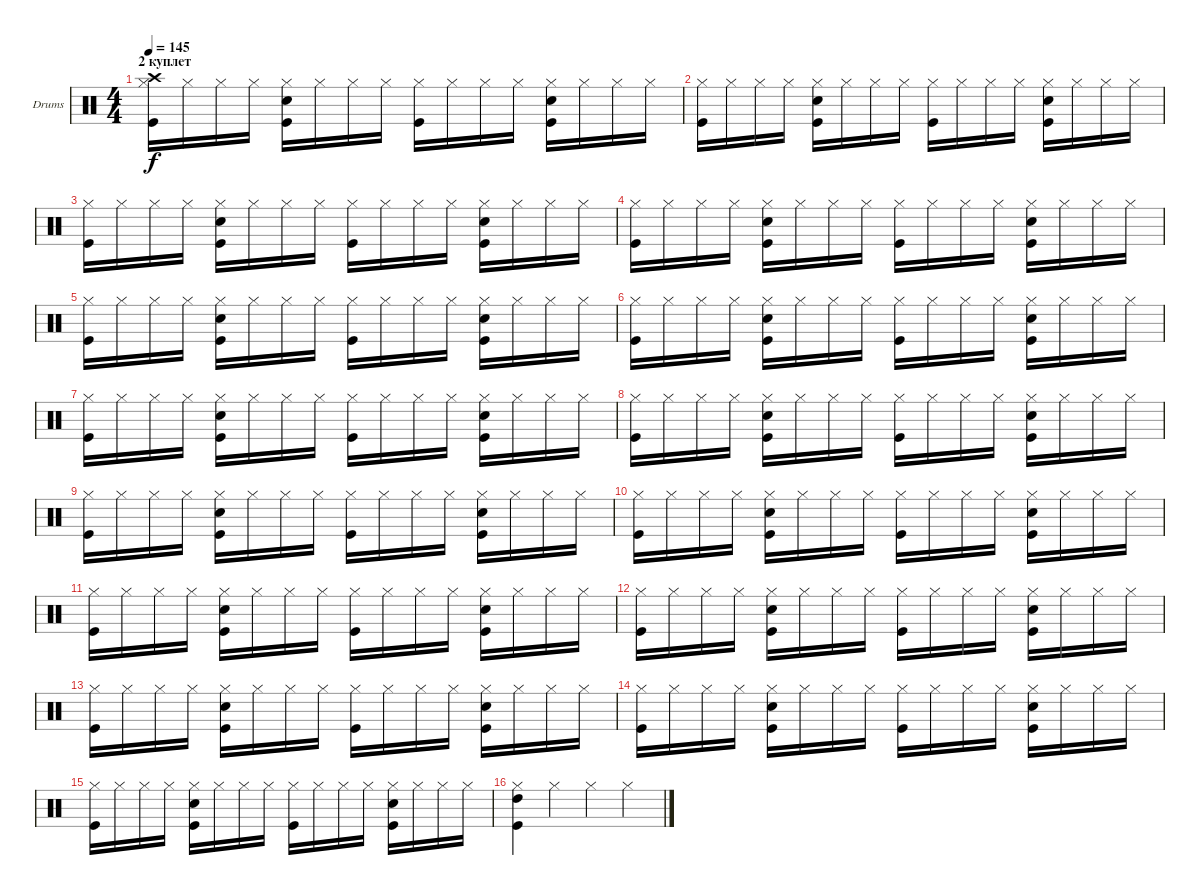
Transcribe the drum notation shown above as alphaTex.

\defaultSystemsLayout 4
\bracketExtendMode groupsimilarinstruments
\firstSystemTrackNameOrientation horizontal
\otherSystemsTrackNameOrientation horizontal
\track ("Drumkit" "Drums") {instrument percussion}
\staff {score}
\articulation defaults
\ts (4 4)
\section ("" "2 куплет")
\tempo 145
\clef neutral
\ks c
("Hi-Hat (closed)" "Kick (hit)" "Crash high (hit)").16{dy f} "Hi-Hat (closed)".16 "Hi-Hat (closed)".16 "Hi-Hat (closed)".16 ("Hi-Hat (closed)" "Kick (hit)" "Snare (hit) 2").16 "Hi-Hat (closed)".16 "Hi-Hat (closed)".16 "Hi-Hat (closed)".16 ("Hi-Hat (closed)" "Kick (hit)").16 "Hi-Hat (closed)".16 "Hi-Hat (closed)".16 "Hi-Hat (closed)".16 ("Hi-Hat (closed)" "Kick (hit)" "Snare (hit) 2").16 "Hi-Hat (closed)".16 "Hi-Hat (closed)".16 "Hi-Hat (closed)".16 |
("Hi-Hat (closed)" "Kick (hit)").16 "Hi-Hat (closed)".16 "Hi-Hat (closed)".16 "Hi-Hat (closed)".16 ("Hi-Hat (closed)" "Kick (hit)" "Snare (hit) 2").16 "Hi-Hat (closed)".16 "Hi-Hat (closed)".16 "Hi-Hat (closed)".16 ("Hi-Hat (closed)" "Kick (hit)").16 "Hi-Hat (closed)".16 "Hi-Hat (closed)".16 "Hi-Hat (closed)".16 ("Hi-Hat (closed)" "Kick (hit)" "Snare (hit) 2").16 "Hi-Hat (closed)".16 "Hi-Hat (closed)".16 "Hi-Hat (closed)".16 |
("Hi-Hat (closed)" "Kick (hit)").16 "Hi-Hat (closed)".16 "Hi-Hat (closed)".16 "Hi-Hat (closed)".16 ("Hi-Hat (closed)" "Kick (hit)" "Snare (hit) 2").16 "Hi-Hat (closed)".16 "Hi-Hat (closed)".16 "Hi-Hat (closed)".16 ("Hi-Hat (closed)" "Kick (hit)").16 "Hi-Hat (closed)".16 "Hi-Hat (closed)".16 "Hi-Hat (closed)".16 ("Hi-Hat (closed)" "Kick (hit)" "Snare (hit) 2").16 "Hi-Hat (closed)".16 "Hi-Hat (closed)".16 "Hi-Hat (closed)".16 |
("Hi-Hat (closed)" "Kick (hit)").16 "Hi-Hat (closed)".16 "Hi-Hat (closed)".16 "Hi-Hat (closed)".16 ("Hi-Hat (closed)" "Kick (hit)" "Snare (hit) 2").16 "Hi-Hat (closed)".16 "Hi-Hat (closed)".16 "Hi-Hat (closed)".16 ("Hi-Hat (closed)" "Kick (hit)").16 "Hi-Hat (closed)".16 "Hi-Hat (closed)".16 "Hi-Hat (closed)".16 ("Hi-Hat (closed)" "Kick (hit)" "Snare (hit) 2").16 "Hi-Hat (closed)".16 "Hi-Hat (closed)".16 "Hi-Hat (closed)".16 |
("Hi-Hat (closed)" "Kick (hit)").16 "Hi-Hat (closed)".16 "Hi-Hat (closed)".16 "Hi-Hat (closed)".16 ("Hi-Hat (closed)" "Kick (hit)" "Snare (hit) 2").16 "Hi-Hat (closed)".16 "Hi-Hat (closed)".16 "Hi-Hat (closed)".16 ("Hi-Hat (closed)" "Kick (hit)").16 "Hi-Hat (closed)".16 "Hi-Hat (closed)".16 "Hi-Hat (closed)".16 ("Hi-Hat (closed)" "Kick (hit)" "Snare (hit) 2").16 "Hi-Hat (closed)".16 "Hi-Hat (closed)".16 "Hi-Hat (closed)".16 |
("Hi-Hat (closed)" "Kick (hit)").16 "Hi-Hat (closed)".16 "Hi-Hat (closed)".16 "Hi-Hat (closed)".16 ("Hi-Hat (closed)" "Kick (hit)" "Snare (hit) 2").16 "Hi-Hat (closed)".16 "Hi-Hat (closed)".16 "Hi-Hat (closed)".16 ("Hi-Hat (closed)" "Kick (hit)").16 "Hi-Hat (closed)".16 "Hi-Hat (closed)".16 "Hi-Hat (closed)".16 ("Hi-Hat (closed)" "Kick (hit)" "Snare (hit) 2").16 "Hi-Hat (closed)".16 "Hi-Hat (closed)".16 "Hi-Hat (closed)".16 |
("Hi-Hat (closed)" "Kick (hit)").16 "Hi-Hat (closed)".16 "Hi-Hat (closed)".16 "Hi-Hat (closed)".16 ("Hi-Hat (closed)" "Kick (hit)" "Snare (hit) 2").16 "Hi-Hat (closed)".16 "Hi-Hat (closed)".16 "Hi-Hat (closed)".16 ("Hi-Hat (closed)" "Kick (hit)").16 "Hi-Hat (closed)".16 "Hi-Hat (closed)".16 "Hi-Hat (closed)".16 ("Hi-Hat (closed)" "Kick (hit)" "Snare (hit) 2").16 "Hi-Hat (closed)".16 "Hi-Hat (closed)".16 "Hi-Hat (closed)".16 |
("Hi-Hat (closed)" "Kick (hit)").16 "Hi-Hat (closed)".16 "Hi-Hat (closed)".16 "Hi-Hat (closed)".16 ("Hi-Hat (closed)" "Kick (hit)" "Snare (hit) 2").16 "Hi-Hat (closed)".16 "Hi-Hat (closed)".16 "Hi-Hat (closed)".16 ("Hi-Hat (closed)" "Kick (hit)").16 "Hi-Hat (closed)".16 "Hi-Hat (closed)".16 "Hi-Hat (closed)".16 ("Hi-Hat (closed)" "Kick (hit)" "Snare (hit) 2").16 "Hi-Hat (closed)".16 "Hi-Hat (closed)".16 "Hi-Hat (closed)".16 |
("Hi-Hat (closed)" "Kick (hit)").16 "Hi-Hat (closed)".16 "Hi-Hat (closed)".16 "Hi-Hat (closed)".16 ("Hi-Hat (closed)" "Kick (hit)" "Snare (hit) 2").16 "Hi-Hat (closed)".16 "Hi-Hat (closed)".16 "Hi-Hat (closed)".16 ("Hi-Hat (closed)" "Kick (hit)").16 "Hi-Hat (closed)".16 "Hi-Hat (closed)".16 "Hi-Hat (closed)".16 ("Hi-Hat (closed)" "Kick (hit)" "Snare (hit) 2").16 "Hi-Hat (closed)".16 "Hi-Hat (closed)".16 "Hi-Hat (closed)".16 |
("Hi-Hat (closed)" "Kick (hit)").16 "Hi-Hat (closed)".16 "Hi-Hat (closed)".16 "Hi-Hat (closed)".16 ("Hi-Hat (closed)" "Kick (hit)" "Snare (hit) 2").16 "Hi-Hat (closed)".16 "Hi-Hat (closed)".16 "Hi-Hat (closed)".16 ("Hi-Hat (closed)" "Kick (hit)").16 "Hi-Hat (closed)".16 "Hi-Hat (closed)".16 "Hi-Hat (closed)".16 ("Hi-Hat (closed)" "Kick (hit)" "Snare (hit) 2").16 "Hi-Hat (closed)".16 "Hi-Hat (closed)".16 "Hi-Hat (closed)".16 |
("Hi-Hat (closed)" "Kick (hit)").16 "Hi-Hat (closed)".16 "Hi-Hat (closed)".16 "Hi-Hat (closed)".16 ("Hi-Hat (closed)" "Kick (hit)" "Snare (hit) 2").16 "Hi-Hat (closed)".16 "Hi-Hat (closed)".16 "Hi-Hat (closed)".16 ("Hi-Hat (closed)" "Kick (hit)").16 "Hi-Hat (closed)".16 "Hi-Hat (closed)".16 "Hi-Hat (closed)".16 ("Hi-Hat (closed)" "Kick (hit)" "Snare (hit) 2").16 "Hi-Hat (closed)".16 "Hi-Hat (closed)".16 "Hi-Hat (closed)".16 |
("Hi-Hat (closed)" "Kick (hit)").16 "Hi-Hat (closed)".16 "Hi-Hat (closed)".16 "Hi-Hat (closed)".16 ("Hi-Hat (closed)" "Kick (hit)" "Snare (hit) 2").16 "Hi-Hat (closed)".16 "Hi-Hat (closed)".16 "Hi-Hat (closed)".16 ("Hi-Hat (closed)" "Kick (hit)").16 "Hi-Hat (closed)".16 "Hi-Hat (closed)".16 "Hi-Hat (closed)".16 ("Hi-Hat (closed)" "Kick (hit)" "Snare (hit) 2").16 "Hi-Hat (closed)".16 "Hi-Hat (closed)".16 "Hi-Hat (closed)".16 |
("Hi-Hat (closed)" "Kick (hit)").16 "Hi-Hat (closed)".16 "Hi-Hat (closed)".16 "Hi-Hat (closed)".16 ("Hi-Hat (closed)" "Kick (hit)" "Snare (hit) 2").16 "Hi-Hat (closed)".16 "Hi-Hat (closed)".16 "Hi-Hat (closed)".16 ("Hi-Hat (closed)" "Kick (hit)").16 "Hi-Hat (closed)".16 "Hi-Hat (closed)".16 "Hi-Hat (closed)".16 ("Hi-Hat (closed)" "Kick (hit)" "Snare (hit) 2").16 "Hi-Hat (closed)".16 "Hi-Hat (closed)".16 "Hi-Hat (closed)".16 |
("Hi-Hat (closed)" "Kick (hit)").16 "Hi-Hat (closed)".16 "Hi-Hat (closed)".16 "Hi-Hat (closed)".16 ("Hi-Hat (closed)" "Kick (hit)" "Snare (hit) 2").16 "Hi-Hat (closed)".16 "Hi-Hat (closed)".16 "Hi-Hat (closed)".16 ("Hi-Hat (closed)" "Kick (hit)").16 "Hi-Hat (closed)".16 "Hi-Hat (closed)".16 "Hi-Hat (closed)".16 ("Hi-Hat (closed)" "Kick (hit)" "Snare (hit) 2").16 "Hi-Hat (closed)".16 "Hi-Hat (closed)".16 "Hi-Hat (closed)".16 |
("Hi-Hat (closed)" "Kick (hit)").16 "Hi-Hat (closed)".16 "Hi-Hat (closed)".16 "Hi-Hat (closed)".16 ("Hi-Hat (closed)" "Kick (hit)" "Snare (hit) 2").16 "Hi-Hat (closed)".16 "Hi-Hat (closed)".16 "Hi-Hat (closed)".16 ("Hi-Hat (closed)" "Kick (hit)").16 "Hi-Hat (closed)".16 "Hi-Hat (closed)".16 "Hi-Hat (closed)".16 ("Hi-Hat (closed)" "Kick (hit)" "Snare (hit) 2").16 "Hi-Hat (closed)".16 "Hi-Hat (closed)".16 "Hi-Hat (closed)".16 |
("Kick (hit)" "High Tom (hit)" "Hi-Hat (closed)").4 "Hi-Hat (closed)".4 "Hi-Hat (closed)".4 "Hi-Hat (closed)".4
